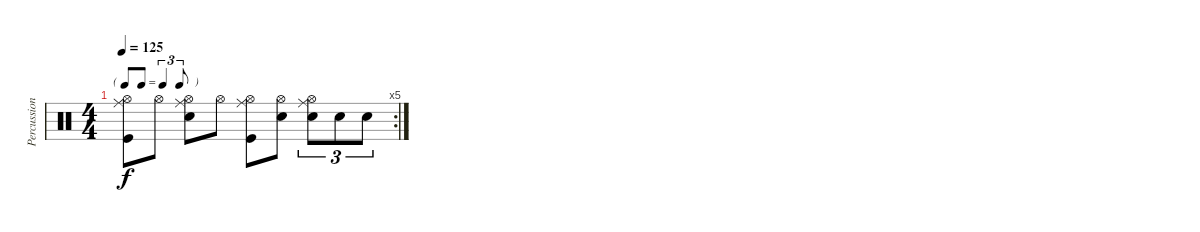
\track ("Percussion" "Percussion") {instrument percussion}
\staff {score}
\articulation defaults
\rc 5
\ts (4 4)
\tf triplet8th
\tempo 125
\clef neutral
\ks c
("Hi-Hat (open)" "Ride (middle)" "Kick (hit)").8{dy f} "Hi-Hat (open)".8 ("Hi-Hat (open)" "Ride (middle)" "Snare (hit) 2").8 "Hi-Hat (open)".8 ("Hi-Hat (open)" "Ride (middle)" "Kick (hit)").8 ("Hi-Hat (open)" "Snare (hit) 2").8 ("Hi-Hat (open)" "Ride (middle)" "Snare (hit) 2").8{tu (3 2)} "Snare (hit) 2".8{tu (3 2)} "Snare (hit) 2".8{tu (3 2)}
